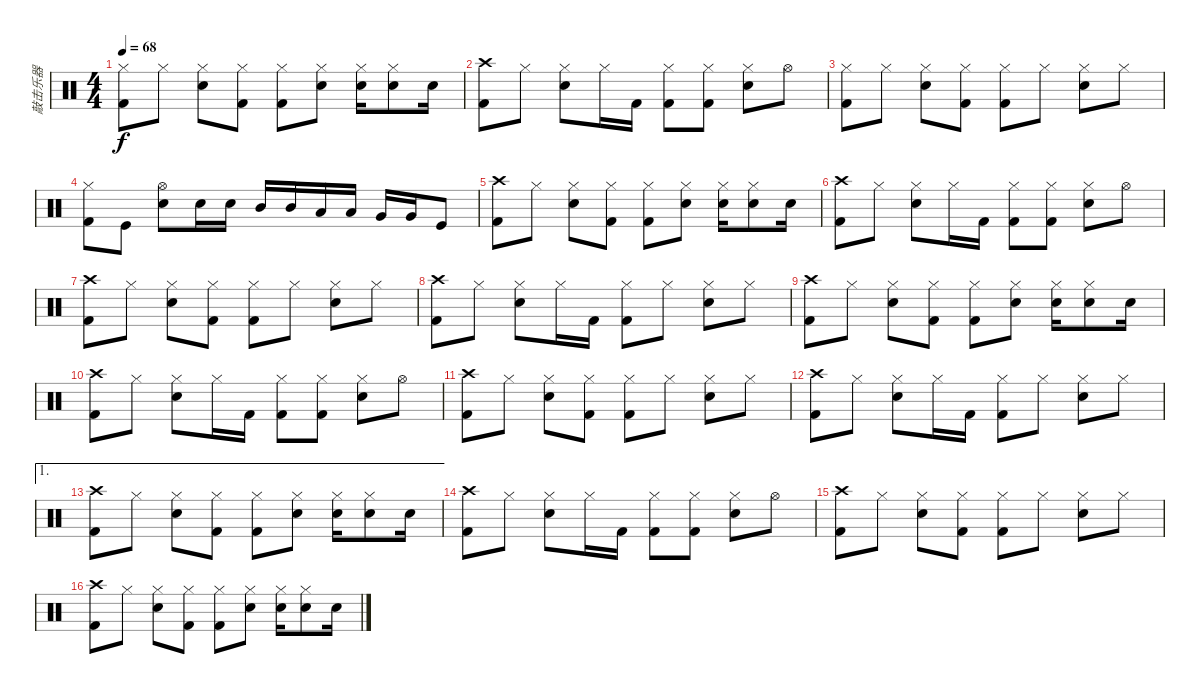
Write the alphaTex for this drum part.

\track ("敲击乐器" "敲击乐器") {instrument percussion}
\staff {score}
\articulation defaults
\ts (4 4)
\tempo 68
\clef neutral
\ks c
("Hi-Hat (closed)" "Kick (hit) 2").8{dy f} "Hi-Hat (closed)".8 ("Hi-Hat (closed)" "Snare (hit) 2").8 ("Hi-Hat (closed)" "Kick (hit) 2").8 ("Hi-Hat (closed)" "Kick (hit) 2").8 ("Hi-Hat (closed)" "Snare (hit) 2").8 ("Hi-Hat (closed)" "Snare (hit) 2").16 ("Hi-Hat (closed)" "Snare (hit) 2").8 "Snare (hit) 2".16 |
("Crash high (hit)" "Kick (hit) 2").8 "Hi-Hat (closed)".8 ("Hi-Hat (closed)" "Snare (hit) 2").8 "Hi-Hat (closed)".16 "Kick (hit) 2".16 ("Hi-Hat (closed)" "Kick (hit) 2").8 ("Hi-Hat (closed)" "Kick (hit) 2").8 ("Hi-Hat (closed)" "Snare (hit) 2").8 "Hi-Hat (open)".8 |
("Hi-Hat (closed)" "Kick (hit) 2").8 "Hi-Hat (closed)".8 ("Hi-Hat (closed)" "Snare (hit) 2").8 ("Hi-Hat (closed)" "Kick (hit) 2").8 ("Hi-Hat (closed)" "Kick (hit) 2").8 "Hi-Hat (closed)".8 ("Hi-Hat (closed)" "Snare (hit) 2").8 "Hi-Hat (closed)".8 |
("Hi-Hat (closed)" "Kick (hit) 2").8 "Kick (hit)".8 ("Electric Snare (hit)" "Hi-Hat (open)").8 "Electric Snare (hit)".16 "Electric Snare (hit)".16 "Mid Tom (hit)".16 "Mid Tom (hit)".16 "Low Tom (hit)".16 "Low Tom (hit)".16 "Very Low Tom (hit)".16 "Very Low Tom (hit)".16 "Kick (hit)".8 |
("Crash high (hit)" "Kick (hit) 2").8 "Hi-Hat (closed)".8 ("Hi-Hat (closed)" "Snare (hit) 2").8 ("Hi-Hat (closed)" "Kick (hit) 2").8 ("Hi-Hat (closed)" "Kick (hit) 2").8 ("Hi-Hat (closed)" "Snare (hit) 2").8 ("Hi-Hat (closed)" "Snare (hit) 2").16 ("Hi-Hat (closed)" "Snare (hit) 2").8 "Snare (hit) 2".16 |
("Crash high (hit)" "Kick (hit) 2").8 "Hi-Hat (closed)".8 ("Hi-Hat (closed)" "Snare (hit) 2").8 "Hi-Hat (closed)".16 "Kick (hit) 2".16 ("Hi-Hat (closed)" "Kick (hit) 2").8 ("Hi-Hat (closed)" "Kick (hit) 2").8 ("Hi-Hat (closed)" "Snare (hit) 2").8 "Hi-Hat (open)".8 |
("Crash high (hit)" "Kick (hit) 2").8 "Hi-Hat (closed)".8 ("Hi-Hat (closed)" "Snare (hit) 2").8 ("Hi-Hat (closed)" "Kick (hit) 2").8 ("Hi-Hat (closed)" "Kick (hit) 2").8 "Hi-Hat (closed)".8 ("Hi-Hat (closed)" "Snare (hit) 2").8 "Hi-Hat (closed)".8 |
("Crash high (hit)" "Kick (hit) 2").8 "Hi-Hat (closed)".8 ("Hi-Hat (closed)" "Snare (hit) 2").8 "Hi-Hat (closed)".16 "Kick (hit) 2".16 ("Hi-Hat (closed)" "Kick (hit) 2").8 "Hi-Hat (closed)".8 ("Hi-Hat (closed)" "Snare (hit) 2").8 "Hi-Hat (closed)".8 |
("Crash high (hit)" "Kick (hit) 2").8 "Hi-Hat (closed)".8 ("Hi-Hat (closed)" "Snare (hit) 2").8 ("Hi-Hat (closed)" "Kick (hit) 2").8 ("Hi-Hat (closed)" "Kick (hit) 2").8 ("Hi-Hat (closed)" "Snare (hit) 2").8 ("Hi-Hat (closed)" "Snare (hit) 2").16 ("Hi-Hat (closed)" "Snare (hit) 2").8 "Snare (hit) 2".16 |
("Crash high (hit)" "Kick (hit) 2").8 "Hi-Hat (closed)".8 ("Hi-Hat (closed)" "Snare (hit) 2").8 "Hi-Hat (closed)".16 "Kick (hit) 2".16 ("Hi-Hat (closed)" "Kick (hit) 2").8 ("Hi-Hat (closed)" "Kick (hit) 2").8 ("Hi-Hat (closed)" "Snare (hit) 2").8 "Hi-Hat (open)".8 |
("Crash high (hit)" "Kick (hit) 2").8 "Hi-Hat (closed)".8 ("Hi-Hat (closed)" "Snare (hit) 2").8 ("Hi-Hat (closed)" "Kick (hit) 2").8 ("Hi-Hat (closed)" "Kick (hit) 2").8 "Hi-Hat (closed)".8 ("Hi-Hat (closed)" "Snare (hit) 2").8 "Hi-Hat (closed)".8 |
("Crash high (hit)" "Kick (hit) 2").8 "Hi-Hat (closed)".8 ("Hi-Hat (closed)" "Snare (hit) 2").8 "Hi-Hat (closed)".16 "Kick (hit) 2".16 ("Hi-Hat (closed)" "Kick (hit) 2").8 "Hi-Hat (closed)".8 ("Hi-Hat (closed)" "Snare (hit) 2").8 "Hi-Hat (closed)".8 |
\ae 1
("Crash high (hit)" "Kick (hit) 2").8 "Hi-Hat (closed)".8 ("Hi-Hat (closed)" "Snare (hit) 2").8 ("Hi-Hat (closed)" "Kick (hit) 2").8 ("Hi-Hat (closed)" "Kick (hit) 2").8 ("Hi-Hat (closed)" "Snare (hit) 2").8 ("Hi-Hat (closed)" "Snare (hit) 2").16 ("Hi-Hat (closed)" "Snare (hit) 2").8 "Snare (hit) 2".16 |
("Crash high (hit)" "Kick (hit) 2").8 "Hi-Hat (closed)".8 ("Hi-Hat (closed)" "Snare (hit) 2").8 "Hi-Hat (closed)".16 "Kick (hit) 2".16 ("Hi-Hat (closed)" "Kick (hit) 2").8 ("Hi-Hat (closed)" "Kick (hit) 2").8 ("Hi-Hat (closed)" "Snare (hit) 2").8 "Hi-Hat (open)".8 |
("Crash high (hit)" "Kick (hit) 2").8 "Hi-Hat (closed)".8 ("Hi-Hat (closed)" "Snare (hit) 2").8 ("Hi-Hat (closed)" "Kick (hit) 2").8 ("Hi-Hat (closed)" "Kick (hit) 2").8 "Hi-Hat (closed)".8 ("Hi-Hat (closed)" "Snare (hit) 2").8 "Hi-Hat (closed)".8 |
("Crash high (hit)" "Kick (hit) 2").8 "Hi-Hat (closed)".8 ("Hi-Hat (closed)" "Snare (hit) 2").8 ("Hi-Hat (closed)" "Kick (hit) 2").8 ("Hi-Hat (closed)" "Kick (hit) 2").8 ("Hi-Hat (closed)" "Snare (hit) 2").8 ("Hi-Hat (closed)" "Snare (hit) 2").16 ("Hi-Hat (closed)" "Snare (hit) 2").8 "Snare (hit) 2".16
